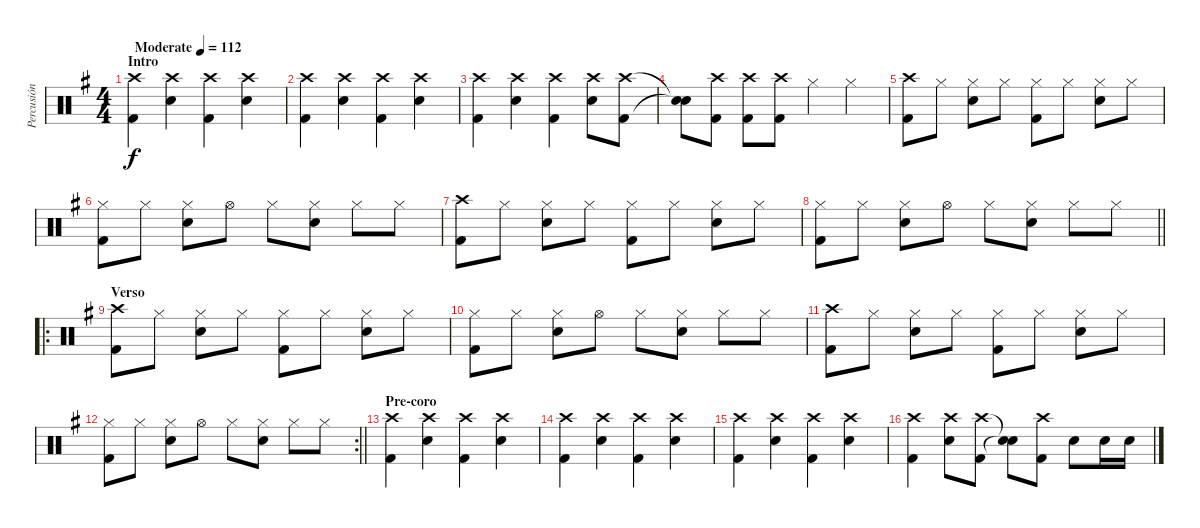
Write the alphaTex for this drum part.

\track ("Percusión" "Percusión") {instrument percussion}
\staff {score}
\articulation defaults
\ts (4 4)
\section ("" "Intro")
\tempo (112 "Moderate")
\clef neutral
\ks g
("Crash high (hit)" "Kick (hit) 2").4{dy f} ("Crash high (hit)" "Electric Snare (hit)").4 ("Crash high (hit)" "Kick (hit) 2").4 ("Crash high (hit)" "Electric Snare (hit)").4 |
("Crash high (hit)" "Kick (hit) 2").4 ("Crash high (hit)" "Electric Snare (hit)").4 ("Crash high (hit)" "Kick (hit) 2").4 ("Crash high (hit)" "Electric Snare (hit)").4 |
("Crash high (hit)" "Kick (hit) 2").4 ("Crash high (hit)" "Electric Snare (hit)").4 ("Crash high (hit)" "Kick (hit) 2").4 ("Crash high (hit)" "Electric Snare (hit)").8 ("Crash high (hit)" "Kick (hit) 2").8 |
("Snare (hit)"{t} "Snare (hit)"{t}).8 ("Crash high (hit)" "Kick (hit) 2").8 ("Crash high (hit)" "Kick (hit) 2").8 ("Crash high (hit)" "Kick (hit) 2").8 "Hi-Hat (closed)".4 "Hi-Hat (closed)".4 |
("Crash high (hit)" "Kick (hit) 2").8 "Hi-Hat (closed)".8 ("Hi-Hat (closed)" "Electric Snare (hit)").8 "Hi-Hat (closed)".8 ("Hi-Hat (closed)" "Kick (hit) 2").8 "Hi-Hat (closed)".8 ("Hi-Hat (closed)" "Electric Snare (hit)").8 "Hi-Hat (closed)".8 |
("Hi-Hat (closed)" "Kick (hit) 2").8 "Hi-Hat (closed)".8 ("Hi-Hat (closed)" "Electric Snare (hit)").8 "Hi-Hat (open)".8 "Hi-Hat (closed)".8 ("Hi-Hat (closed)" "Electric Snare (hit)").8 "Hi-Hat (closed)".8 "Hi-Hat (closed)".8 |
("Crash high (hit)" "Kick (hit) 2").8 "Hi-Hat (closed)".8 ("Hi-Hat (closed)" "Electric Snare (hit)").8 "Hi-Hat (closed)".8 ("Hi-Hat (closed)" "Kick (hit) 2").8 "Hi-Hat (closed)".8 ("Hi-Hat (closed)" "Electric Snare (hit)").8 "Hi-Hat (closed)".8 |
\barLineRight lightlight
("Hi-Hat (closed)" "Kick (hit) 2").8 "Hi-Hat (closed)".8 ("Hi-Hat (closed)" "Electric Snare (hit)").8 "Hi-Hat (open)".8 "Hi-Hat (closed)".8 ("Hi-Hat (closed)" "Electric Snare (hit)").8 "Hi-Hat (closed)".8 "Hi-Hat (closed)".8 |
\ro
\section ("" "Verso")
("Crash high (hit)" "Kick (hit) 2").8 "Hi-Hat (closed)".8 ("Hi-Hat (closed)" "Electric Snare (hit)").8 "Hi-Hat (closed)".8 ("Hi-Hat (closed)" "Kick (hit) 2").8 "Hi-Hat (closed)".8 ("Hi-Hat (closed)" "Electric Snare (hit)").8 "Hi-Hat (closed)".8 |
("Hi-Hat (closed)" "Kick (hit) 2").8 "Hi-Hat (closed)".8 ("Hi-Hat (closed)" "Electric Snare (hit)").8 "Hi-Hat (open)".8 "Hi-Hat (closed)".8 ("Hi-Hat (closed)" "Electric Snare (hit)").8 "Hi-Hat (closed)".8 "Hi-Hat (closed)".8 |
("Crash high (hit)" "Kick (hit) 2").8 "Hi-Hat (closed)".8 ("Hi-Hat (closed)" "Electric Snare (hit)").8 "Hi-Hat (closed)".8 ("Hi-Hat (closed)" "Kick (hit) 2").8 "Hi-Hat (closed)".8 ("Hi-Hat (closed)" "Electric Snare (hit)").8 "Hi-Hat (closed)".8 |
\rc 2
\barLineRight lightlight
("Hi-Hat (closed)" "Kick (hit) 2").8 "Hi-Hat (closed)".8 ("Hi-Hat (closed)" "Electric Snare (hit)").8 "Hi-Hat (open)".8 "Hi-Hat (closed)".8 ("Hi-Hat (closed)" "Electric Snare (hit)").8 "Hi-Hat (closed)".8 "Hi-Hat (closed)".8 |
\section ("" "Pre-coro")
("Crash high (hit)" "Kick (hit) 2").4 ("Crash high (hit)" "Electric Snare (hit)").4 ("Crash high (hit)" "Kick (hit) 2").4 ("Crash high (hit)" "Electric Snare (hit)").4 |
("Crash high (hit)" "Kick (hit) 2").4 ("Crash high (hit)" "Electric Snare (hit)").4 ("Crash high (hit)" "Kick (hit) 2").4 ("Crash high (hit)" "Electric Snare (hit)").4 |
("Crash high (hit)" "Kick (hit) 2").4 ("Crash high (hit)" "Electric Snare (hit)").4 ("Crash high (hit)" "Kick (hit) 2").4 ("Crash high (hit)" "Electric Snare (hit)").4 |
("Crash high (hit)" "Kick (hit) 2").4 ("Crash high (hit)" "Electric Snare (hit)").8 ("Crash high (hit)" "Kick (hit) 2").8 ("Snare (hit)"{t} "Snare (hit)"{t}).8 ("Crash high (hit)" "Kick (hit) 2").8 "Electric Snare (hit)".8 "Electric Snare (hit)".16 "Electric Snare (hit)".16
